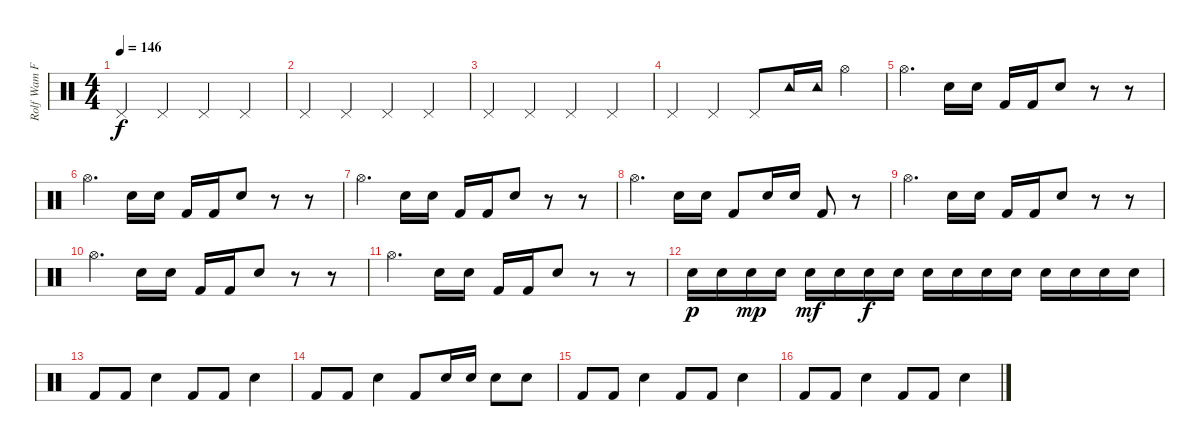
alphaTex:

\track ("Rolf Wam Fjell" "Rolf Wam F") {instrument percussion}
\staff {score}
\articulation defaults
\ts (4 4)
\tempo 146
\clef neutral
\ks c "Pedal Hi-Hat (hit)".4{dy f} "Pedal Hi-Hat (hit)".4 "Pedal Hi-Hat (hit)".4 "Pedal Hi-Hat (hit)".4
|
"Pedal Hi-Hat (hit)".4 "Pedal Hi-Hat (hit)".4 "Pedal Hi-Hat (hit)".4 "Pedal Hi-Hat (hit)".4 |
"Pedal Hi-Hat (hit)".4 "Pedal Hi-Hat (hit)".4 "Pedal Hi-Hat (hit)".4 "Pedal Hi-Hat (hit)".4 |
"Pedal Hi-Hat (hit)".4 "Pedal Hi-Hat (hit)".4 "Pedal Hi-Hat (hit)".8 "Tambourine (hit)".16 "Tambourine (hit)".16 "Hi-Hat (open)".4 |
"Hi-Hat (open)".4{d} "Electric Snare (hit)".16 "Electric Snare (hit)".16 "Kick (hit) 2".16 "Kick (hit) 2".16 "Electric Snare (hit)".8 r.8 r.8 |
"Hi-Hat (open)".4{d} "Electric Snare (hit)".16 "Electric Snare (hit)".16 "Kick (hit) 2".16 "Kick (hit) 2".16 "Electric Snare (hit)".8 r.8 r.8 |
"Hi-Hat (open)".4{d} "Electric Snare (hit)".16 "Electric Snare (hit)".16 "Kick (hit) 2".16 "Kick (hit) 2".16 "Electric Snare (hit)".8 r.8 r.8 |
"Hi-Hat (open)".4{d} "Electric Snare (hit)".16 "Electric Snare (hit)".16 "Kick (hit) 2".8 "Electric Snare (hit)".16 "Electric Snare (hit)".16 "Kick (hit) 2".8 r.8 |
"Hi-Hat (open)".4{d} "Electric Snare (hit)".16 "Electric Snare (hit)".16 "Kick (hit) 2".16 "Kick (hit) 2".16 "Electric Snare (hit)".8 r.8 r.8 |
"Hi-Hat (open)".4{d} "Electric Snare (hit)".16 "Electric Snare (hit)".16 "Kick (hit) 2".16 "Kick (hit) 2".16 "Electric Snare (hit)".8 r.8 r.8 |
"Hi-Hat (open)".4{d} "Electric Snare (hit)".16 "Electric Snare (hit)".16 "Kick (hit) 2".16 "Kick (hit) 2".16 "Electric Snare (hit)".8 r.8 r.8 |
"Electric Snare (hit)".16{dy p} "Electric Snare (hit)".16 "Electric Snare (hit)".16{dy mp} "Electric Snare (hit)".16 "Electric Snare (hit)".16{dy mf} "Electric Snare (hit)".16 "Electric Snare (hit)".16{dy f} "Electric Snare (hit)".16 "Electric Snare (hit)".16 "Electric Snare (hit)".16 "Electric Snare (hit)".16 "Electric Snare (hit)".16 "Electric Snare (hit)".16 "Electric Snare (hit)".16 "Electric Snare (hit)".16 "Electric Snare (hit)".16 |
"Kick (hit) 2".8 "Kick (hit) 2".8 "Electric Snare (hit)".4 "Kick (hit) 2".8 "Kick (hit) 2".8 "Electric Snare (hit)".4 |
"Kick (hit) 2".8 "Kick (hit) 2".8 "Electric Snare (hit)".4 "Kick (hit) 2".8 "Electric Snare (hit)".16 "Electric Snare (hit)".16 "Electric Snare (hit)".8 "Electric Snare (hit)".8 |
"Kick (hit) 2".8 "Kick (hit) 2".8 "Electric Snare (hit)".4 "Kick (hit) 2".8 "Kick (hit) 2".8 "Electric Snare (hit)".4 |
"Kick (hit) 2".8 "Kick (hit) 2".8 "Electric Snare (hit)".4 "Kick (hit) 2".8 "Kick (hit) 2".8 "Electric Snare (hit)".4
